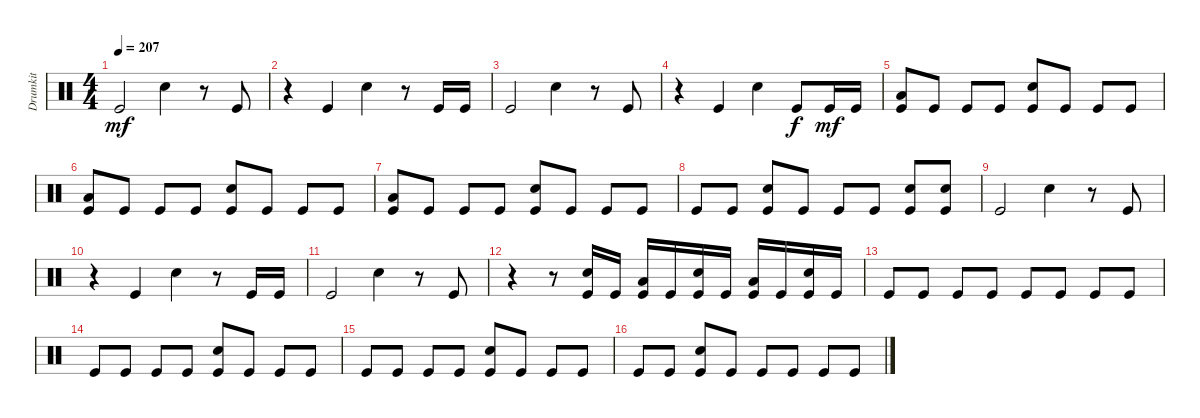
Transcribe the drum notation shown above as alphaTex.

\track ("Drumkit" "Drumkit") {instrument percussion}
\staff {score}
\articulation defaults
\ts (4 4)
\tempo 207
\clef neutral
\ks c "Kick (hit)".2{dy mf} "Snare (hit) 2".4
r.8 "Kick (hit)".8 |
r.4 "Kick (hit)".4 "Snare (hit) 2".4 r.8 "Kick (hit)".16 "Kick (hit)".16 |
"Kick (hit)".2 "Snare (hit) 2".4 r.8 "Kick (hit)".8 |
r.4 "Kick (hit)".4 "Snare (hit) 2".4 "Kick (hit)".8{dy f} "Kick (hit)".16{dy mf} "Kick (hit)".16 |
("Kick (hit)" "Low Tom (hit)").8 "Kick (hit)".8 "Kick (hit)".8 "Kick (hit)".8 ("Kick (hit)" "Snare (hit) 2").8 "Kick (hit)".8 "Kick (hit)".8 "Kick (hit)".8 |
("Kick (hit)" "Low Tom (hit)").8 "Kick (hit)".8 "Kick (hit)".8 "Kick (hit)".8 ("Kick (hit)" "Snare (hit) 2").8 "Kick (hit)".8 "Kick (hit)".8 "Kick (hit)".8 |
("Kick (hit)" "Low Tom (hit)").8 "Kick (hit)".8 "Kick (hit)".8 "Kick (hit)".8 ("Kick (hit)" "Snare (hit) 2").8 "Kick (hit)".8 "Kick (hit)".8 "Kick (hit)".8 |
"Kick (hit)".8 "Kick (hit)".8 ("Kick (hit)" "Snare (hit) 2").8 "Kick (hit)".8 "Kick (hit)".8 "Kick (hit)".8 ("Kick (hit)" "Snare (hit) 2").8 ("Kick (hit)" "Snare (hit) 2").8 |
"Kick (hit)".2 "Snare (hit) 2".4 r.8 "Kick (hit)".8 |
r.4 "Kick (hit)".4 "Snare (hit) 2".4 r.8 "Kick (hit)".16 "Kick (hit)".16 |
"Kick (hit)".2 "Snare (hit) 2".4 r.8 "Kick (hit)".8 |
r.4 r.8 ("Kick (hit)" "Snare (hit) 2").16 "Kick (hit)".16 ("Kick (hit)" "Low Tom (hit)").16 "Kick (hit)".16 ("Kick (hit)" "Snare (hit) 2").16 "Kick (hit)".16 ("Kick (hit)" "Low Tom (hit)").16 "Kick (hit)".16 ("Kick (hit)" "Snare (hit) 2").16 "Kick (hit)".16 |
"Kick (hit)".8 "Kick (hit)".8 "Kick (hit)".8 "Kick (hit)".8 "Kick (hit)".8 "Kick (hit)".8 "Kick (hit)".8 "Kick (hit)".8 |
"Kick (hit)".8 "Kick (hit)".8 "Kick (hit)".8 "Kick (hit)".8 ("Kick (hit)" "Snare (hit) 2").8 "Kick (hit)".8 "Kick (hit)".8 "Kick (hit)".8 |
"Kick (hit)".8 "Kick (hit)".8 "Kick (hit)".8 "Kick (hit)".8 ("Kick (hit)" "Snare (hit) 2").8 "Kick (hit)".8 "Kick (hit)".8 "Kick (hit)".8 |
"Kick (hit)".8 "Kick (hit)".8 ("Kick (hit)" "Snare (hit) 2").8 "Kick (hit)".8 "Kick (hit)".8 "Kick (hit)".8 "Kick (hit)".8 "Kick (hit)".8
